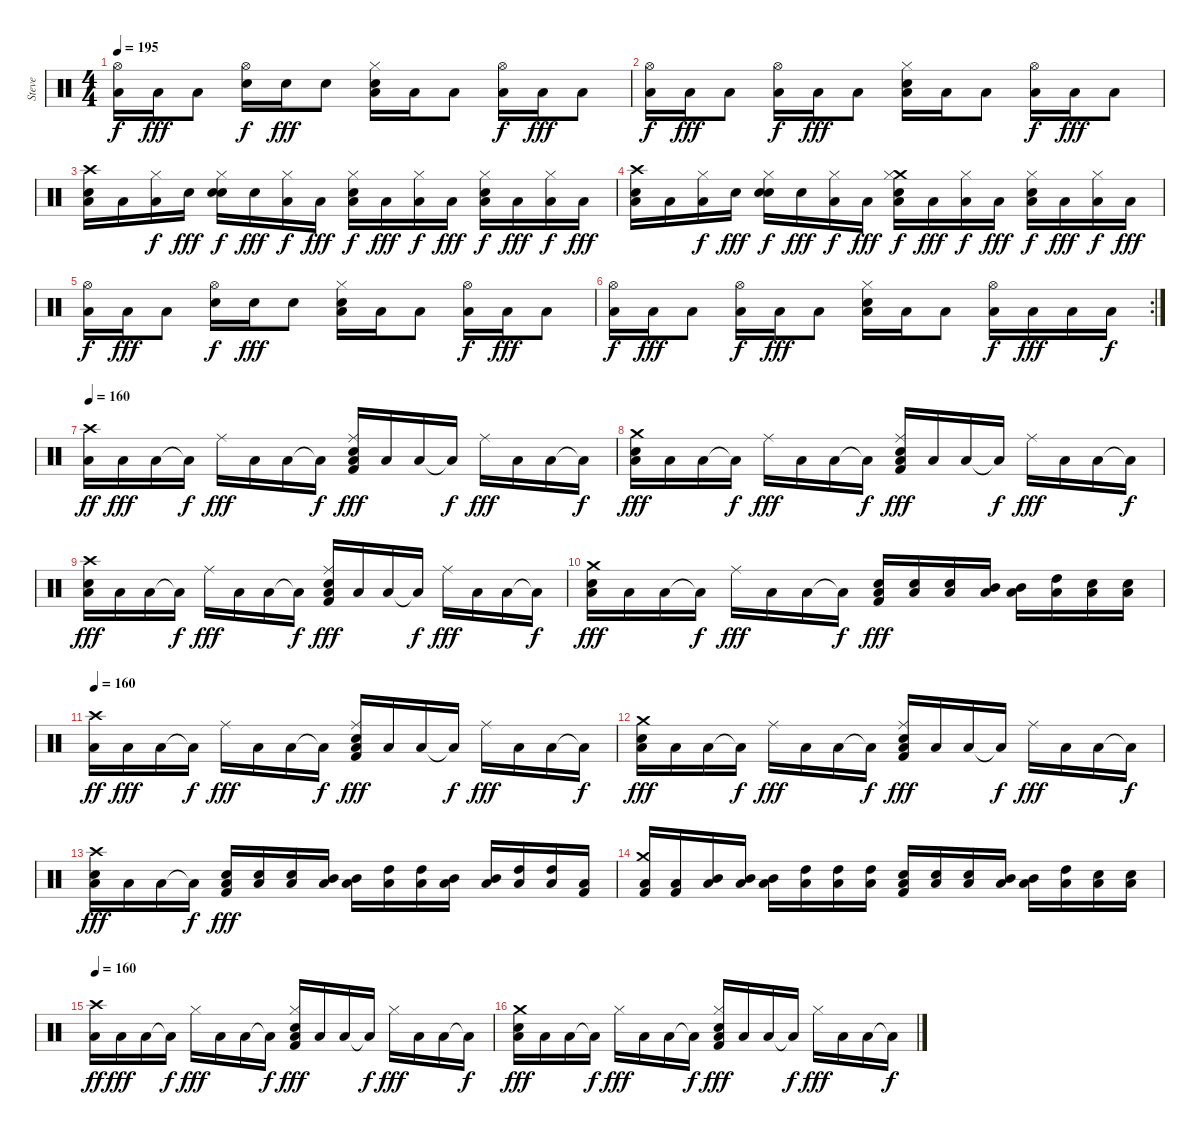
\track ("Steve" "Steve") {instrument percussion}
\staff {score}
\articulation defaults
\ts (4 4)
\tempo 195
\clef neutral
\ks c
("Hi-Hat (open)" "Low Floor Tom (hit)").16{dy f} "Low Floor Tom (hit)".16{dy fff} "Low Floor Tom (hit)".8 ("Hi-Hat (open)" "Snare (hit)").16{dy f} "Snare (hit)".16{dy fff} "Snare (hit)".8 ("Electric Snare (hit)" "Hi-Hat (closed)" "Low Floor Tom (hit)").16 "Low Floor Tom (hit)".16 "Low Floor Tom (hit)".8 ("Hi-Hat (open)" "Low Floor Tom (hit)").16{dy f} "Low Floor Tom (hit)".16{dy fff} "Low Floor Tom (hit)".8 |
("Hi-Hat (open)" "Low Floor Tom (hit)").16{dy f} "Low Floor Tom (hit)".16{dy fff} "Low Floor Tom (hit)".8 ("Hi-Hat (open)" "Low Floor Tom (hit)").16{dy f} "Low Floor Tom (hit)".16{dy fff} "Low Floor Tom (hit)".8 ("Electric Snare (hit)" "Hi-Hat (closed)" "Low Floor Tom (hit)").16 "Low Floor Tom (hit)".16 "Low Floor Tom (hit)".8 ("Hi-Hat (open)" "Low Floor Tom (hit)").16{dy f} "Low Floor Tom (hit)".16{dy fff} "Low Floor Tom (hit)".8 |
("Electric Snare (hit)" "Crash high (hit)" "Low Floor Tom (hit)").16 "Low Floor Tom (hit)".16 ("Hi-Hat (closed)" "Low Floor Tom (hit)").16{dy f} "Snare (hit)".16{dy fff} ("Electric Snare (hit)" "Hi-Hat (closed)" "Snare (hit)").16{dy f} "Snare (hit)".16{dy fff} ("Hi-Hat (closed)" "Low Floor Tom (hit)").16{dy f} "Low Floor Tom (hit)".16{dy fff} ("Electric Snare (hit)" "Hi-Hat (closed)" "Low Floor Tom (hit)").16{dy f} "Low Floor Tom (hit)".16{dy fff} ("Hi-Hat (closed)" "Low Floor Tom (hit)").16{dy f} "Low Floor Tom (hit)".16{dy fff} ("Electric Snare (hit)" "Hi-Hat (closed)" "Low Floor Tom (hit)").16{dy f} "Low Floor Tom (hit)".16{dy fff} ("Hi-Hat (closed)" "Low Floor Tom (hit)").16{dy f} "Low Floor Tom (hit)".16{dy fff} |
("Electric Snare (hit)" "Crash high (hit)" "Low Floor Tom (hit)").16 "Low Floor Tom (hit)".16 ("Hi-Hat (closed)" "Low Floor Tom (hit)").16{dy f} "Snare (hit)".16{dy fff} ("Electric Snare (hit)" "Hi-Hat (closed)" "Snare (hit)").16{dy f} "Snare (hit)".16{dy fff} ("Hi-Hat (closed)" "Low Floor Tom (hit)").16{dy f} "Low Floor Tom (hit)".16{dy fff} ("Electric Snare (hit)" "Crash medium (hit)" "Hi-Hat (closed)" "Low Floor Tom (hit)").16{dy f} "Low Floor Tom (hit)".16{dy fff} ("Hi-Hat (closed)" "Low Floor Tom (hit)").16{dy f} "Low Floor Tom (hit)".16{dy fff} ("Electric Snare (hit)" "Hi-Hat (closed)" "Low Floor Tom (hit)").16{dy f} "Low Floor Tom (hit)".16{dy fff} ("Hi-Hat (closed)" "Low Floor Tom (hit)").16{dy f} "Low Floor Tom (hit)".16{dy fff} |
("Hi-Hat (open)" "Low Floor Tom (hit)").16{dy f} "Low Floor Tom (hit)".16{dy fff} "Low Floor Tom (hit)".8 ("Hi-Hat (open)" "Snare (hit)").16{dy f} "Snare (hit)".16{dy fff} "Snare (hit)".8 ("Electric Snare (hit)" "Hi-Hat (closed)" "Low Floor Tom (hit)").16 "Low Floor Tom (hit)".16 "Low Floor Tom (hit)".8 ("Hi-Hat (open)" "Low Floor Tom (hit)").16{dy f} "Low Floor Tom (hit)".16{dy fff} "Low Floor Tom (hit)".8 |
\rc 2
("Hi-Hat (open)" "Low Floor Tom (hit)").16{dy f} "Low Floor Tom (hit)".16{dy fff} "Low Floor Tom (hit)".8 ("Hi-Hat (open)" "Low Floor Tom (hit)").16{dy f} "Low Floor Tom (hit)".16{dy fff} "Low Floor Tom (hit)".8 ("Electric Snare (hit)" "Hi-Hat (closed)" "Low Floor Tom (hit)").16 "Low Floor Tom (hit)".16 "Low Floor Tom (hit)".8 ("Hi-Hat (open)" "Low Floor Tom (hit)").16{dy f} "Low Floor Tom (hit)".16{dy fff} "Low Floor Tom (hit)".16 "Low Floor Tom (hit)".16{dy f} |
\tempo 160
("Crash high (hit)" "Low Floor Tom (hit)").16{dy ff} "Low Floor Tom (hit)".16{dy fff} "Low Floor Tom (hit)".16 "Low Floor Tom (hit)"{t}.16{dy f} "Ride (middle)".16{dy fff} "Low Floor Tom (hit)".16 "Low Floor Tom (hit)".16 "Low Floor Tom (hit)"{t}.16{dy f} ("Electric Snare (hit)" "Kick (hit) 2" "Ride (middle)" "Low Floor Tom (hit)").16{dy fff} "Low Floor Tom (hit)".16 "Low Floor Tom (hit)".16 "Low Floor Tom (hit)"{t}.16{dy f} "Ride (middle)".16{dy fff} "Low Floor Tom (hit)".16 "Low Floor Tom (hit)".16 "Low Floor Tom (hit)"{t}.16{dy f} |
("Crash medium (hit)" "Electric Snare (hit)" "Low Floor Tom (hit)").16{dy fff} "Low Floor Tom (hit)".16 "Low Floor Tom (hit)".16 "Low Floor Tom (hit)"{t}.16{dy f} "Ride (middle)".16{dy fff} "Low Floor Tom (hit)".16 "Low Floor Tom (hit)".16 "Low Floor Tom (hit)"{t}.16{dy f} ("Electric Snare (hit)" "Kick (hit) 2" "Ride (middle)" "Low Floor Tom (hit)").16{dy fff} "Low Floor Tom (hit)".16 "Low Floor Tom (hit)".16 "Low Floor Tom (hit)"{t}.16{dy f} "Ride (middle)".16{dy fff} "Low Floor Tom (hit)".16 "Low Floor Tom (hit)".16 "Low Floor Tom (hit)"{t}.16{dy f} |
("Crash high (hit)" "Electric Snare (hit)" "Low Floor Tom (hit)").16{dy fff} "Low Floor Tom (hit)".16 "Low Floor Tom (hit)".16 "Low Floor Tom (hit)"{t}.16{dy f} "Ride (middle)".16{dy fff} "Low Floor Tom (hit)".16 "Low Floor Tom (hit)".16 "Low Floor Tom (hit)"{t}.16{dy f} ("Electric Snare (hit)" "Kick (hit) 2" "Ride (middle)" "Low Floor Tom (hit)").16{dy fff} "Low Floor Tom (hit)".16 "Low Floor Tom (hit)".16 "Low Floor Tom (hit)"{t}.16{dy f} "Ride (middle)".16{dy fff} "Low Floor Tom (hit)".16 "Low Floor Tom (hit)".16 "Low Floor Tom (hit)"{t}.16{dy f} |
("Crash medium (hit)" "Electric Snare (hit)" "Low Floor Tom (hit)").16{dy fff} "Low Floor Tom (hit)".16 "Low Floor Tom (hit)".16 "Low Floor Tom (hit)"{t}.16{dy f} "Ride (middle)".16{dy fff} "Low Floor Tom (hit)".16 "Low Floor Tom (hit)".16 "Low Floor Tom (hit)"{t}.16{dy f} ("Electric Snare (hit)" "Kick (hit) 2" "Low Floor Tom (hit)").16{dy fff} ("Electric Snare (hit)" "Low Floor Tom (hit)").16 ("Electric Snare (hit)" "Low Floor Tom (hit)").16 ("Mid Tom (hit)" "Low Floor Tom (hit)").16 ("Mid Tom (hit)" "Low Floor Tom (hit)").16 ("High Tom (hit)" "Low Floor Tom (hit)").16 ("Electric Snare (hit)" "Low Floor Tom (hit)").16 ("Electric Snare (hit)" "Low Floor Tom (hit)").16 |
\tempo 160
("Crash high (hit)" "Low Floor Tom (hit)").16{dy ff} "Low Floor Tom (hit)".16{dy fff} "Low Floor Tom (hit)".16 "Low Floor Tom (hit)"{t}.16{dy f} "Ride (middle)".16{dy fff} "Low Floor Tom (hit)".16 "Low Floor Tom (hit)".16 "Low Floor Tom (hit)"{t}.16{dy f} ("Electric Snare (hit)" "Kick (hit) 2" "Ride (middle)" "Low Floor Tom (hit)").16{dy fff} "Low Floor Tom (hit)".16 "Low Floor Tom (hit)".16 "Low Floor Tom (hit)"{t}.16{dy f} "Ride (middle)".16{dy fff} "Low Floor Tom (hit)".16 "Low Floor Tom (hit)".16 "Low Floor Tom (hit)"{t}.16{dy f} |
("Crash medium (hit)" "Electric Snare (hit)" "Low Floor Tom (hit)").16{dy fff} "Low Floor Tom (hit)".16 "Low Floor Tom (hit)".16 "Low Floor Tom (hit)"{t}.16{dy f} "Ride (middle)".16{dy fff} "Low Floor Tom (hit)".16 "Low Floor Tom (hit)".16 "Low Floor Tom (hit)"{t}.16{dy f} ("Electric Snare (hit)" "Kick (hit) 2" "Ride (middle)" "Low Floor Tom (hit)").16{dy fff} "Low Floor Tom (hit)".16 "Low Floor Tom (hit)".16 "Low Floor Tom (hit)"{t}.16{dy f} "Ride (middle)".16{dy fff} "Low Floor Tom (hit)".16 "Low Floor Tom (hit)".16 "Low Floor Tom (hit)"{t}.16{dy f} |
("Crash high (hit)" "Electric Snare (hit)" "Low Floor Tom (hit)").16{dy fff} "Low Floor Tom (hit)".16 "Low Floor Tom (hit)".16 "Low Floor Tom (hit)"{t}.16{dy f} ("Electric Snare (hit)" "Kick (hit) 2" "Low Floor Tom (hit)").16{dy fff} ("Electric Snare (hit)" "Low Floor Tom (hit)").16 ("Electric Snare (hit)" "Low Floor Tom (hit)").16 ("Mid Tom (hit)" "Low Floor Tom (hit)").16 ("Mid Tom (hit)" "Low Floor Tom (hit)").16 ("High Tom (hit)" "Low Floor Tom (hit)").16 ("High Tom (hit)" "Low Floor Tom (hit)").16 ("Mid Tom (hit)" "Low Floor Tom (hit)").16 ("Mid Tom (hit)" "Low Floor Tom (hit)").16 ("High Tom (hit)" "Low Floor Tom (hit)").16 ("High Tom (hit)" "Low Floor Tom (hit)").16 ("Kick (hit) 2" "Low Floor Tom (hit)").16 |
("Crash medium (hit)" "Kick (hit) 2" "Low Floor Tom (hit)").16 ("Kick (hit) 2" "Low Floor Tom (hit)").16 ("Mid Tom (hit)" "Low Floor Tom (hit)").16 ("Mid Tom (hit)" "Low Floor Tom (hit)").16 ("Mid Tom (hit)" "Low Floor Tom (hit)").16 ("High Tom (hit)" "Low Floor Tom (hit)").16 ("High Tom (hit)" "Low Floor Tom (hit)").16 ("High Tom (hit)" "Low Floor Tom (hit)").16 ("Electric Snare (hit)" "Kick (hit) 2" "Low Floor Tom (hit)").16 ("Electric Snare (hit)" "Low Floor Tom (hit)").16 ("Electric Snare (hit)" "Low Floor Tom (hit)").16 ("Mid Tom (hit)" "Low Floor Tom (hit)").16 ("Mid Tom (hit)" "Low Floor Tom (hit)").16 ("High Tom (hit)" "Low Floor Tom (hit)").16 ("Electric Snare (hit)" "Low Floor Tom (hit)").16 ("Electric Snare (hit)" "Low Floor Tom (hit)").16 |
\tempo 160
("Crash high (hit)" "Low Floor Tom (hit)").16{dy ff} "Low Floor Tom (hit)".16{dy fff} "Low Floor Tom (hit)".16 "Low Floor Tom (hit)"{t}.16{dy f} "Hi-Hat (closed)".16{dy fff} "Low Floor Tom (hit)".16 "Low Floor Tom (hit)".16 "Low Floor Tom (hit)"{t}.16{dy f} ("Electric Snare (hit)" "Kick (hit) 2" "Hi-Hat (closed)" "Low Floor Tom (hit)").16{dy fff} "Low Floor Tom (hit)".16 "Low Floor Tom (hit)".16 "Low Floor Tom (hit)"{t}.16{dy f} "Hi-Hat (closed)".16{dy fff} "Low Floor Tom (hit)".16 "Low Floor Tom (hit)".16 "Low Floor Tom (hit)"{t}.16{dy f} |
("Crash medium (hit)" "Electric Snare (hit)" "Low Floor Tom (hit)").16{dy fff} "Low Floor Tom (hit)".16 "Low Floor Tom (hit)".16 "Low Floor Tom (hit)"{t}.16{dy f} "Hi-Hat (closed)".16{dy fff} "Low Floor Tom (hit)".16 "Low Floor Tom (hit)".16 "Low Floor Tom (hit)"{t}.16{dy f} ("Electric Snare (hit)" "Kick (hit) 2" "Hi-Hat (closed)" "Low Floor Tom (hit)").16{dy fff} "Low Floor Tom (hit)".16 "Low Floor Tom (hit)".16 "Low Floor Tom (hit)"{t}.16{dy f} "Hi-Hat (closed)".16{dy fff} "Low Floor Tom (hit)".16 "Low Floor Tom (hit)".16 "Low Floor Tom (hit)"{t}.16{dy f}
